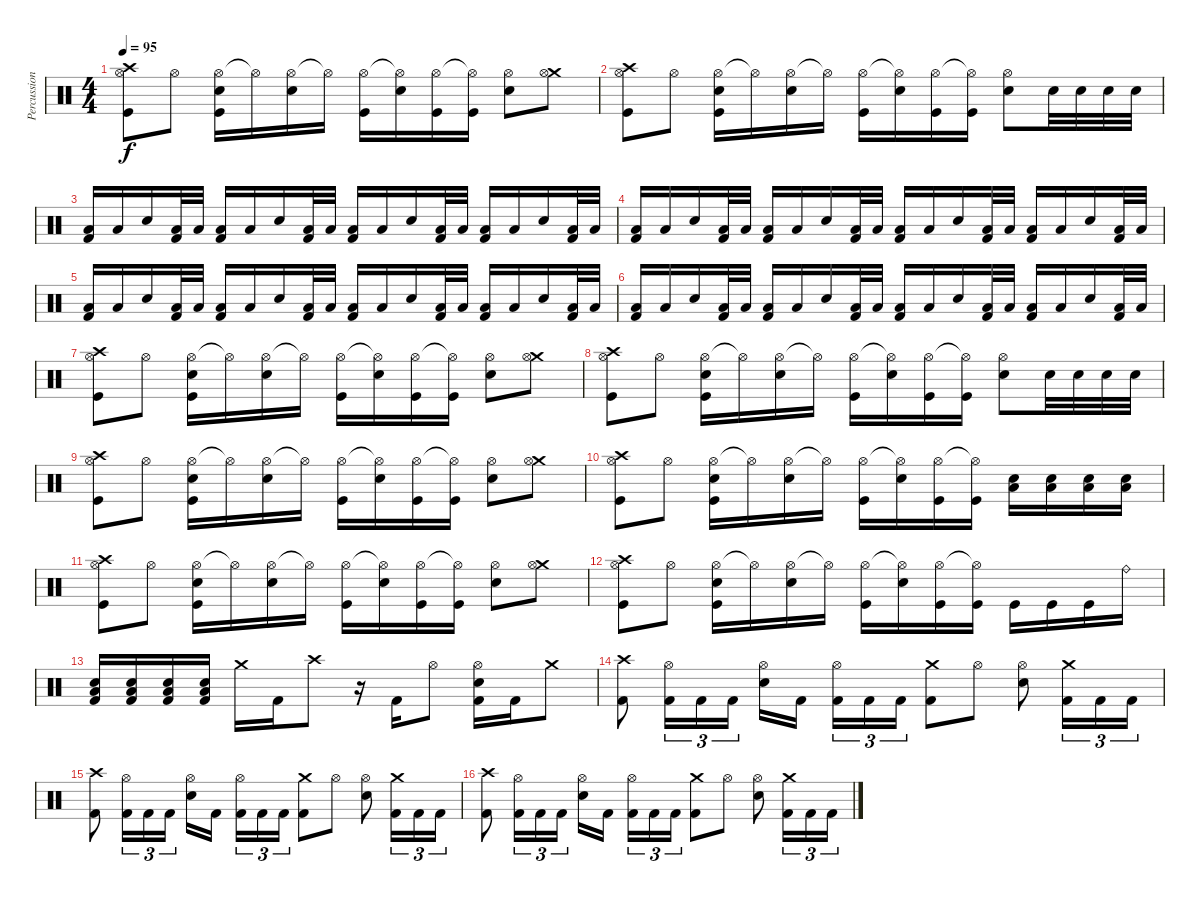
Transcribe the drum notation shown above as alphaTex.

\track ("Percussion" "Percussion") {instrument percussion}
\staff {score}
\articulation defaults
\ts (4 4)
\tempo 95
\clef neutral
\ks c
("Crash high (hit)" "Hi-Hat (open)" "Kick (hit)").8{dy f} "Hi-Hat (open)".8 ("Hi-Hat (open)" "Snare (hit) 2" "Kick (hit)").16 "Hi-Hat (open)"{t}.16 ("Hi-Hat (open)" "Snare (hit) 2").16 "Hi-Hat (open)"{t}.16 ("Hi-Hat (open)" "Kick (hit)").16 ("Hi-Hat (open)"{t} "Snare (hit) 2").16 ("Hi-Hat (open)" "Kick (hit)").16 ("Hi-Hat (open)"{t} "Kick (hit)").16 ("Hi-Hat (open)" "Snare (hit) 2").8 ("Crash medium (hit)" "Hi-Hat (open)").8 |
("Crash high (hit)" "Hi-Hat (open)" "Kick (hit)").8 "Hi-Hat (open)".8 ("Hi-Hat (open)" "Snare (hit) 2" "Kick (hit)").16 "Hi-Hat (open)"{t}.16 ("Hi-Hat (open)" "Snare (hit) 2").16 "Hi-Hat (open)"{t}.16 ("Hi-Hat (open)" "Kick (hit)").16 ("Hi-Hat (open)"{t} "Snare (hit) 2").16 ("Hi-Hat (open)" "Kick (hit)").16 ("Hi-Hat (open)"{t} "Kick (hit)").16 ("Hi-Hat (open)" "Snare (hit) 2").8 "Snare (hit) 2".32 "Snare (hit) 2".32 "Snare (hit) 2".32 "Snare (hit) 2".32 |
("Low Floor Tom (hit)" "Kick (hit) 2").16 "Low Floor Tom (hit)".16 "Snare (hit) 2".16 ("Low Floor Tom (hit)" "Kick (hit) 2").32 "Low Floor Tom (hit)".32 ("Low Floor Tom (hit)" "Kick (hit) 2").16 "Low Floor Tom (hit)".16 "Snare (hit) 2".16 ("Low Floor Tom (hit)" "Kick (hit) 2").32 "Low Floor Tom (hit)".32 ("Low Floor Tom (hit)" "Kick (hit) 2").16 "Low Floor Tom (hit)".16 "Snare (hit) 2".16 ("Low Floor Tom (hit)" "Kick (hit) 2").32 "Low Floor Tom (hit)".32 ("Low Floor Tom (hit)" "Kick (hit) 2").16 "Low Floor Tom (hit)".16 "Snare (hit) 2".16 ("Low Floor Tom (hit)" "Kick (hit) 2").32 "Low Floor Tom (hit)".32 |
("Low Floor Tom (hit)" "Kick (hit) 2").16 "Low Floor Tom (hit)".16 "Snare (hit) 2".16 ("Low Floor Tom (hit)" "Kick (hit) 2").32 "Low Floor Tom (hit)".32 ("Low Floor Tom (hit)" "Kick (hit) 2").16 "Low Floor Tom (hit)".16 "Snare (hit) 2".16 ("Low Floor Tom (hit)" "Kick (hit) 2").32 "Low Floor Tom (hit)".32 ("Low Floor Tom (hit)" "Kick (hit) 2").16 "Low Floor Tom (hit)".16 "Snare (hit) 2".16 ("Low Floor Tom (hit)" "Kick (hit) 2").32 "Low Floor Tom (hit)".32 ("Low Floor Tom (hit)" "Kick (hit) 2").16 "Low Floor Tom (hit)".16 "Snare (hit) 2".16 ("Low Floor Tom (hit)" "Kick (hit) 2").32 "Low Floor Tom (hit)".32 |
("Low Floor Tom (hit)" "Kick (hit) 2").16 "Low Floor Tom (hit)".16 "Snare (hit) 2".16 ("Low Floor Tom (hit)" "Kick (hit) 2").32 "Low Floor Tom (hit)".32 ("Low Floor Tom (hit)" "Kick (hit) 2").16 "Low Floor Tom (hit)".16 "Snare (hit) 2".16 ("Low Floor Tom (hit)" "Kick (hit) 2").32 "Low Floor Tom (hit)".32 ("Low Floor Tom (hit)" "Kick (hit) 2").16 "Low Floor Tom (hit)".16 "Snare (hit) 2".16 ("Low Floor Tom (hit)" "Kick (hit) 2").32 "Low Floor Tom (hit)".32 ("Low Floor Tom (hit)" "Kick (hit) 2").16 "Low Floor Tom (hit)".16 "Snare (hit) 2".16 ("Low Floor Tom (hit)" "Kick (hit) 2").32 "Low Floor Tom (hit)".32 |
("Low Floor Tom (hit)" "Kick (hit) 2").16 "Low Floor Tom (hit)".16 "Snare (hit) 2".16 ("Low Floor Tom (hit)" "Kick (hit) 2").32 "Low Floor Tom (hit)".32 ("Low Floor Tom (hit)" "Kick (hit) 2").16 "Low Floor Tom (hit)".16 "Snare (hit) 2".16 ("Low Floor Tom (hit)" "Kick (hit) 2").32 "Low Floor Tom (hit)".32 ("Low Floor Tom (hit)" "Kick (hit) 2").16 "Low Floor Tom (hit)".16 "Snare (hit) 2".16 ("Low Floor Tom (hit)" "Kick (hit) 2").32 "Low Floor Tom (hit)".32 ("Low Floor Tom (hit)" "Kick (hit) 2").16 "Low Floor Tom (hit)".16 "Snare (hit) 2".16 ("Low Floor Tom (hit)" "Kick (hit) 2").32 "Low Floor Tom (hit)".32 |
("Crash high (hit)" "Hi-Hat (open)" "Kick (hit)").8 "Hi-Hat (open)".8 ("Hi-Hat (open)" "Snare (hit) 2" "Kick (hit)").16 "Hi-Hat (open)"{t}.16 ("Hi-Hat (open)" "Snare (hit) 2").16 "Hi-Hat (open)"{t}.16 ("Hi-Hat (open)" "Kick (hit)").16 ("Hi-Hat (open)"{t} "Snare (hit) 2").16 ("Hi-Hat (open)" "Kick (hit)").16 ("Hi-Hat (open)"{t} "Kick (hit)").16 ("Hi-Hat (open)" "Snare (hit) 2").8 ("Crash medium (hit)" "Hi-Hat (open)").8 |
("Crash high (hit)" "Hi-Hat (open)" "Kick (hit)").8 "Hi-Hat (open)".8 ("Hi-Hat (open)" "Snare (hit) 2" "Kick (hit)").16 "Hi-Hat (open)"{t}.16 ("Hi-Hat (open)" "Snare (hit) 2").16 "Hi-Hat (open)"{t}.16 ("Hi-Hat (open)" "Kick (hit)").16 ("Hi-Hat (open)"{t} "Snare (hit) 2").16 ("Hi-Hat (open)" "Kick (hit)").16 ("Hi-Hat (open)"{t} "Kick (hit)").16 ("Hi-Hat (open)" "Snare (hit) 2").8 "Snare (hit) 2".32 "Snare (hit) 2".32 "Snare (hit) 2".32 "Snare (hit) 2".32 |
("Crash high (hit)" "Hi-Hat (open)" "Kick (hit)").8 "Hi-Hat (open)".8 ("Hi-Hat (open)" "Snare (hit) 2" "Kick (hit)").16 "Hi-Hat (open)"{t}.16 ("Hi-Hat (open)" "Snare (hit) 2").16 "Hi-Hat (open)"{t}.16 ("Hi-Hat (open)" "Kick (hit)").16 ("Hi-Hat (open)"{t} "Snare (hit) 2").16 ("Hi-Hat (open)" "Kick (hit)").16 ("Hi-Hat (open)"{t} "Kick (hit)").16 ("Hi-Hat (open)" "Snare (hit) 2").8 ("Crash medium (hit)" "Hi-Hat (open)").8 |
("Crash high (hit)" "Hi-Hat (open)" "Kick (hit)").8 "Hi-Hat (open)".8 ("Hi-Hat (open)" "Snare (hit) 2" "Kick (hit)").16 "Hi-Hat (open)"{t}.16 ("Hi-Hat (open)" "Snare (hit) 2").16 "Hi-Hat (open)"{t}.16 ("Hi-Hat (open)" "Kick (hit)").16 ("Hi-Hat (open)"{t} "Snare (hit) 2").16 ("Hi-Hat (open)" "Kick (hit)").16 ("Hi-Hat (open)"{t} "Kick (hit)").16 ("Snare (hit) 2" "Low Tom (hit)").16 ("Snare (hit) 2" "Low Tom (hit)").16 ("Snare (hit) 2" "Low Tom (hit)").16 ("Snare (hit) 2" "Low Tom (hit)").16 |
("Crash high (hit)" "Hi-Hat (open)" "Kick (hit)").8 "Hi-Hat (open)".8 ("Hi-Hat (open)" "Snare (hit) 2" "Kick (hit)").16 "Hi-Hat (open)"{t}.16 ("Hi-Hat (open)" "Snare (hit) 2").16 "Hi-Hat (open)"{t}.16 ("Hi-Hat (open)" "Kick (hit)").16 ("Hi-Hat (open)"{t} "Snare (hit) 2").16 ("Hi-Hat (open)" "Kick (hit)").16 ("Hi-Hat (open)"{t} "Kick (hit)").16 ("Hi-Hat (open)" "Snare (hit) 2").8 ("Crash medium (hit)" "Hi-Hat (open)").8 |
("Crash high (hit)" "Hi-Hat (open)" "Kick (hit)").8 "Hi-Hat (open)".8 ("Hi-Hat (open)" "Snare (hit) 2" "Kick (hit)").16 "Hi-Hat (open)"{t}.16 ("Hi-Hat (open)" "Snare (hit) 2").16 "Hi-Hat (open)"{t}.16 ("Hi-Hat (open)" "Kick (hit)").16 ("Hi-Hat (open)"{t} "Snare (hit) 2").16 ("Hi-Hat (open)" "Kick (hit)").16 ("Hi-Hat (open)"{t} "Kick (hit)").16 "Kick (hit)".16 "Kick (hit)".16 "Kick (hit)".16 "Ride (bell)".16 |
("Snare (hit) 2" "Low Floor Tom (hit)" "Kick (hit) 2").16 ("Snare (hit) 2" "Low Floor Tom (hit)" "Kick (hit) 2").16 ("Snare (hit) 2" "Low Floor Tom (hit)" "Kick (hit) 2").16 ("Snare (hit) 2" "Low Floor Tom (hit)" "Kick (hit) 2").16 "Crash medium (hit)".16 "Kick (hit) 2".16 "Crash high (hit)".8 r.16 "Kick (hit) 2".16 "Hi-Hat (open)".8 ("Hi-Hat (open)" "Snare (hit) 2" "Kick (hit) 2").16 "Kick (hit) 2".16 "Crash medium (hit)".8 |
("Crash high (hit)" "Kick (hit) 2").8 ("Hi-Hat (open)" "Kick (hit) 2").16{tu (3 2)} "Kick (hit) 2".16{tu (3 2)} "Kick (hit) 2".16{tu (3 2)} ("Hi-Hat (open)" "Snare (hit) 2").16 "Kick (hit) 2".16 ("Hi-Hat (open)" "Kick (hit) 2").16{tu (3 2)} "Kick (hit) 2".16{tu (3 2)} "Kick (hit) 2".16{tu (3 2)} ("Crash medium (hit)" "Kick (hit) 2").8 "Hi-Hat (open)".8 ("Hi-Hat (open)" "Snare (hit) 2").8 ("Crash medium (hit)" "Kick (hit) 2").16{tu (3 2)} "Kick (hit) 2".16{tu (3 2)} "Kick (hit) 2".16{tu (3 2)} |
("Crash high (hit)" "Kick (hit) 2").8 ("Hi-Hat (open)" "Kick (hit) 2").16{tu (3 2)} "Kick (hit) 2".16{tu (3 2)} "Kick (hit) 2".16{tu (3 2)} ("Hi-Hat (open)" "Snare (hit) 2").16 "Kick (hit) 2".16 ("Hi-Hat (open)" "Kick (hit) 2").16{tu (3 2)} "Kick (hit) 2".16{tu (3 2)} "Kick (hit) 2".16{tu (3 2)} ("Crash medium (hit)" "Kick (hit) 2").8 "Hi-Hat (open)".8 ("Hi-Hat (open)" "Snare (hit) 2").8 ("Crash medium (hit)" "Kick (hit) 2").16{tu (3 2)} "Kick (hit) 2".16{tu (3 2)} "Kick (hit) 2".16{tu (3 2)} |
("Crash high (hit)" "Kick (hit) 2").8 ("Hi-Hat (open)" "Kick (hit) 2").16{tu (3 2)} "Kick (hit) 2".16{tu (3 2)} "Kick (hit) 2".16{tu (3 2)} ("Hi-Hat (open)" "Snare (hit) 2").16 "Kick (hit) 2".16 ("Hi-Hat (open)" "Kick (hit) 2").16{tu (3 2)} "Kick (hit) 2".16{tu (3 2)} "Kick (hit) 2".16{tu (3 2)} ("Crash medium (hit)" "Kick (hit) 2").8 "Hi-Hat (open)".8 ("Hi-Hat (open)" "Snare (hit) 2").8 ("Crash medium (hit)" "Kick (hit) 2").16{tu (3 2)} "Kick (hit) 2".16{tu (3 2)} "Kick (hit) 2".16{tu (3 2)}
